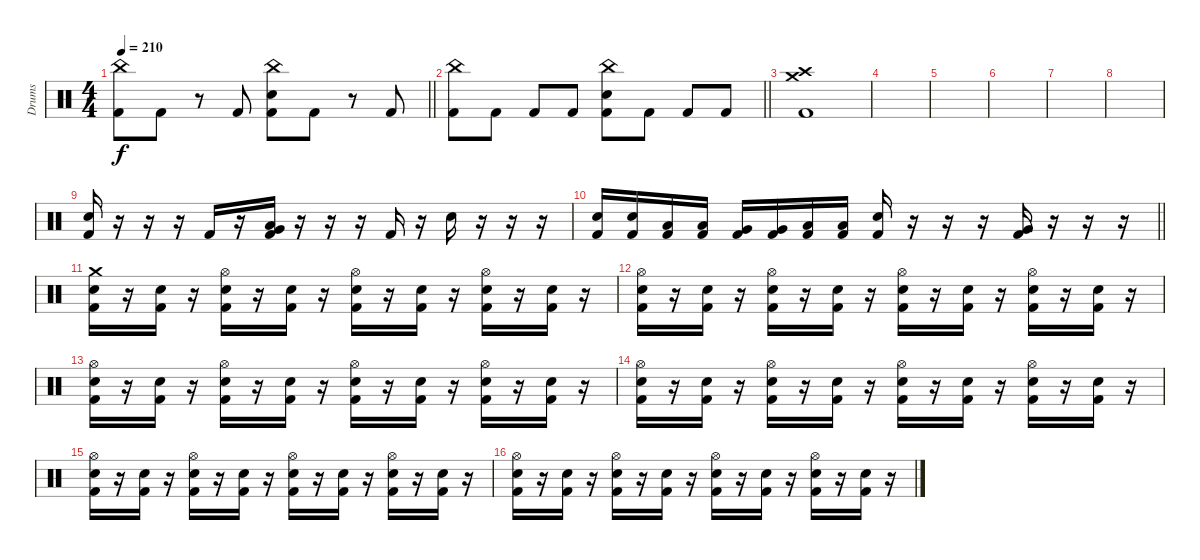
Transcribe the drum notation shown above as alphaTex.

\track ("Drums" "Drums") {instrument percussion}
\staff {score}
\articulation defaults
\ts (4 4)
\tempo 210
\clef neutral
\barLineRight lightlight
\ks c
("China (hit)" "Kick (hit) 2").8{dy f} "Kick (hit) 2".8 r.8 "Kick (hit) 2".8 ("China (hit)" "Electric Snare (hit)" "Kick (hit) 2").8 "Kick (hit) 2".8 r.8 "Kick (hit) 2".8 |
\barLineRight lightlight
("China (hit)" "Kick (hit) 2").8 "Kick (hit) 2".8 "Kick (hit) 2".8 "Kick (hit) 2".8 ("China (hit)" "Electric Snare (hit)" "Kick (hit) 2").8 "Kick (hit) 2".8 "Kick (hit) 2".8 "Kick (hit) 2".8 |
("Crash medium (hit)" "Crash high (hit)" "Kick (hit) 2").1 |
|
|
|
|
|
("Electric Snare (hit)" "Kick (hit) 2").16 r.16 r.16 r.16 "Kick (hit) 2".16 r.16 ("Very Low Tom (hit)" "Low Floor Tom (hit)" "Kick (hit) 2").16 r.16 r.16 r.16 "Kick (hit) 2".16 r.16 "Electric Snare (hit)".16 r.16 r.16 r.16 |
\barLineRight lightlight
("Electric Snare (hit)" "Kick (hit) 2").16 ("Electric Snare (hit)" "Kick (hit) 2").16 ("Low Tom (hit)" "Kick (hit) 2").16 ("Low Tom (hit)" "Kick (hit) 2").16 ("Very Low Tom (hit)" "Kick (hit) 2").16 ("Very Low Tom (hit)" "Kick (hit) 2").16 ("Low Floor Tom (hit)" "Kick (hit) 2").16 ("Low Floor Tom (hit)" "Kick (hit) 2").16 ("Electric Snare (hit)" "Kick (hit) 2").16 r.16 r.16 r.16 ("Very Low Tom (hit)" "Kick (hit) 2").16 r.16 r.16 r.16 |
("Crash medium (hit)" "Electric Snare (hit)" "Kick (hit) 2").16 r.16 ("Electric Snare (hit)" "Kick (hit) 2").16 r.16 ("Hi-Hat (open)" "Electric Snare (hit)" "Kick (hit) 2").16 r.16 ("Electric Snare (hit)" "Kick (hit) 2").16 r.16 ("Hi-Hat (open)" "Electric Snare (hit)" "Kick (hit) 2").16 r.16 ("Electric Snare (hit)" "Kick (hit) 2").16 r.16 ("Hi-Hat (open)" "Electric Snare (hit)" "Kick (hit) 2").16 r.16 ("Electric Snare (hit)" "Kick (hit) 2").16 r.16 |
("Hi-Hat (open)" "Electric Snare (hit)" "Kick (hit) 2").16 r.16 ("Electric Snare (hit)" "Kick (hit) 2").16 r.16 ("Hi-Hat (open)" "Electric Snare (hit)" "Kick (hit) 2").16 r.16 ("Electric Snare (hit)" "Kick (hit) 2").16 r.16 ("Hi-Hat (open)" "Electric Snare (hit)" "Kick (hit) 2").16 r.16 ("Electric Snare (hit)" "Kick (hit) 2").16 r.16 ("Hi-Hat (open)" "Electric Snare (hit)" "Kick (hit) 2").16 r.16 ("Electric Snare (hit)" "Kick (hit) 2").16 r.16 |
("Hi-Hat (open)" "Electric Snare (hit)" "Kick (hit) 2").16 r.16 ("Electric Snare (hit)" "Kick (hit) 2").16 r.16 ("Hi-Hat (open)" "Electric Snare (hit)" "Kick (hit) 2").16 r.16 ("Electric Snare (hit)" "Kick (hit) 2").16 r.16 ("Hi-Hat (open)" "Electric Snare (hit)" "Kick (hit) 2").16 r.16 ("Electric Snare (hit)" "Kick (hit) 2").16 r.16 ("Hi-Hat (open)" "Electric Snare (hit)" "Kick (hit) 2").16 r.16 ("Electric Snare (hit)" "Kick (hit) 2").16 r.16 |
("Hi-Hat (open)" "Electric Snare (hit)" "Kick (hit) 2").16 r.16 ("Electric Snare (hit)" "Kick (hit) 2").16 r.16 ("Hi-Hat (open)" "Electric Snare (hit)" "Kick (hit) 2").16 r.16 ("Electric Snare (hit)" "Kick (hit) 2").16 r.16 ("Hi-Hat (open)" "Electric Snare (hit)" "Kick (hit) 2").16 r.16 ("Electric Snare (hit)" "Kick (hit) 2").16 r.16 ("Hi-Hat (open)" "Electric Snare (hit)" "Kick (hit) 2").16 r.16 ("Electric Snare (hit)" "Kick (hit) 2").16 r.16 |
("Hi-Hat (open)" "Electric Snare (hit)" "Kick (hit) 2").16 r.16 ("Electric Snare (hit)" "Kick (hit) 2").16 r.16 ("Hi-Hat (open)" "Electric Snare (hit)" "Kick (hit) 2").16 r.16 ("Electric Snare (hit)" "Kick (hit) 2").16 r.16 ("Hi-Hat (open)" "Electric Snare (hit)" "Kick (hit) 2").16 r.16 ("Electric Snare (hit)" "Kick (hit) 2").16 r.16 ("Hi-Hat (open)" "Electric Snare (hit)" "Kick (hit) 2").16 r.16 ("Electric Snare (hit)" "Kick (hit) 2").16 r.16 |
("Hi-Hat (open)" "Electric Snare (hit)" "Kick (hit) 2").16 r.16 ("Electric Snare (hit)" "Kick (hit) 2").16 r.16 ("Hi-Hat (open)" "Electric Snare (hit)" "Kick (hit) 2").16 r.16 ("Electric Snare (hit)" "Kick (hit) 2").16 r.16 ("Hi-Hat (open)" "Electric Snare (hit)" "Kick (hit) 2").16 r.16 ("Electric Snare (hit)" "Kick (hit) 2").16 r.16 ("Hi-Hat (open)" "Electric Snare (hit)" "Kick (hit) 2").16 r.16 ("Electric Snare (hit)" "Kick (hit) 2").16 r.16
